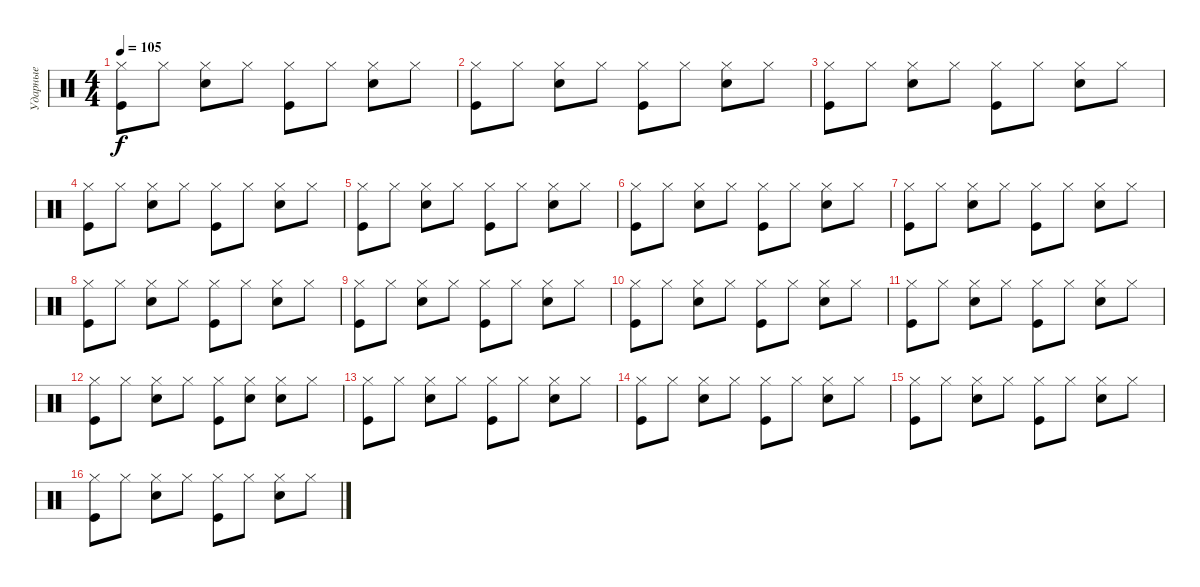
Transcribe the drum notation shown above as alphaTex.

\track ("Ударные" "Ударные") {instrument percussion}
\staff {score}
\articulation defaults
\ts (4 4)
\tempo 105
\clef neutral
\ks c
("Kick (hit)" "Hi-Hat (closed)").8{dy f} "Hi-Hat (closed)".8 ("Snare (hit) 2" "Hi-Hat (closed)").8 "Hi-Hat (closed)".8 ("Kick (hit)" "Hi-Hat (closed)").8 "Hi-Hat (closed)".8 ("Snare (hit) 2" "Hi-Hat (closed)").8 "Hi-Hat (closed)".8 |
("Kick (hit)" "Hi-Hat (closed)").8 "Hi-Hat (closed)".8 ("Snare (hit) 2" "Hi-Hat (closed)").8 "Hi-Hat (closed)".8 ("Kick (hit)" "Hi-Hat (closed)").8 "Hi-Hat (closed)".8 ("Snare (hit) 2" "Hi-Hat (closed)").8 "Hi-Hat (closed)".8 |
("Kick (hit)" "Hi-Hat (closed)").8 "Hi-Hat (closed)".8 ("Snare (hit) 2" "Hi-Hat (closed)").8 "Hi-Hat (closed)".8 ("Kick (hit)" "Hi-Hat (closed)").8 "Hi-Hat (closed)".8 ("Snare (hit) 2" "Hi-Hat (closed)").8 "Hi-Hat (closed)".8 |
("Kick (hit)" "Hi-Hat (closed)").8 "Hi-Hat (closed)".8 ("Snare (hit) 2" "Hi-Hat (closed)").8 "Hi-Hat (closed)".8 ("Kick (hit)" "Hi-Hat (closed)").8 "Hi-Hat (closed)".8 ("Snare (hit) 2" "Hi-Hat (closed)").8 "Hi-Hat (closed)".8 |
("Kick (hit)" "Hi-Hat (closed)").8 "Hi-Hat (closed)".8 ("Snare (hit) 2" "Hi-Hat (closed)").8 "Hi-Hat (closed)".8 ("Kick (hit)" "Hi-Hat (closed)").8 "Hi-Hat (closed)".8 ("Snare (hit) 2" "Hi-Hat (closed)").8 "Hi-Hat (closed)".8 |
("Kick (hit)" "Hi-Hat (closed)").8 "Hi-Hat (closed)".8 ("Snare (hit) 2" "Hi-Hat (closed)").8 "Hi-Hat (closed)".8 ("Kick (hit)" "Hi-Hat (closed)").8 "Hi-Hat (closed)".8 ("Snare (hit) 2" "Hi-Hat (closed)").8 "Hi-Hat (closed)".8 |
("Kick (hit)" "Hi-Hat (closed)").8 "Hi-Hat (closed)".8 ("Snare (hit) 2" "Hi-Hat (closed)").8 "Hi-Hat (closed)".8 ("Kick (hit)" "Hi-Hat (closed)").8 "Hi-Hat (closed)".8 ("Snare (hit) 2" "Hi-Hat (closed)").8 "Hi-Hat (closed)".8 |
("Kick (hit)" "Hi-Hat (closed)").8 "Hi-Hat (closed)".8 ("Snare (hit) 2" "Hi-Hat (closed)").8 "Hi-Hat (closed)".8 ("Kick (hit)" "Hi-Hat (closed)").8 "Hi-Hat (closed)".8 ("Snare (hit) 2" "Hi-Hat (closed)").8 "Hi-Hat (closed)".8 |
("Kick (hit)" "Hi-Hat (closed)").8 "Hi-Hat (closed)".8 ("Snare (hit) 2" "Hi-Hat (closed)").8 "Hi-Hat (closed)".8 ("Kick (hit)" "Hi-Hat (closed)").8 "Hi-Hat (closed)".8 ("Snare (hit) 2" "Hi-Hat (closed)").8 "Hi-Hat (closed)".8 |
("Kick (hit)" "Hi-Hat (closed)").8 "Hi-Hat (closed)".8 ("Snare (hit) 2" "Hi-Hat (closed)").8 "Hi-Hat (closed)".8 ("Kick (hit)" "Hi-Hat (closed)").8 "Hi-Hat (closed)".8 ("Snare (hit) 2" "Hi-Hat (closed)").8 "Hi-Hat (closed)".8 |
("Kick (hit)" "Hi-Hat (closed)").8 "Hi-Hat (closed)".8 ("Snare (hit) 2" "Hi-Hat (closed)").8 "Hi-Hat (closed)".8 ("Kick (hit)" "Hi-Hat (closed)").8 "Hi-Hat (closed)".8 ("Snare (hit) 2" "Hi-Hat (closed)").8 "Hi-Hat (closed)".8 |
("Kick (hit)" "Hi-Hat (closed)").8 "Hi-Hat (closed)".8 ("Snare (hit) 2" "Hi-Hat (closed)").8 "Hi-Hat (closed)".8 ("Kick (hit)" "Hi-Hat (closed)").8 ("Hi-Hat (closed)" "Snare (hit) 2").8 ("Snare (hit) 2" "Hi-Hat (closed)").8 "Hi-Hat (closed)".8 |
("Kick (hit)" "Hi-Hat (closed)").8 "Hi-Hat (closed)".8 ("Snare (hit) 2" "Hi-Hat (closed)").8 "Hi-Hat (closed)".8 ("Kick (hit)" "Hi-Hat (closed)").8 "Hi-Hat (closed)".8 ("Snare (hit) 2" "Hi-Hat (closed)").8 "Hi-Hat (closed)".8 |
("Kick (hit)" "Hi-Hat (closed)").8 "Hi-Hat (closed)".8 ("Snare (hit) 2" "Hi-Hat (closed)").8 "Hi-Hat (closed)".8 ("Kick (hit)" "Hi-Hat (closed)").8 "Hi-Hat (closed)".8 ("Snare (hit) 2" "Hi-Hat (closed)").8 "Hi-Hat (closed)".8 |
("Kick (hit)" "Hi-Hat (closed)").8 "Hi-Hat (closed)".8 ("Snare (hit) 2" "Hi-Hat (closed)").8 "Hi-Hat (closed)".8 ("Kick (hit)" "Hi-Hat (closed)").8 "Hi-Hat (closed)".8 ("Snare (hit) 2" "Hi-Hat (closed)").8 "Hi-Hat (closed)".8 |
("Kick (hit)" "Hi-Hat (closed)").8 "Hi-Hat (closed)".8 ("Snare (hit) 2" "Hi-Hat (closed)").8 "Hi-Hat (closed)".8 ("Kick (hit)" "Hi-Hat (closed)").8 "Hi-Hat (closed)".8 ("Snare (hit) 2" "Hi-Hat (closed)").8 "Hi-Hat (closed)".8
